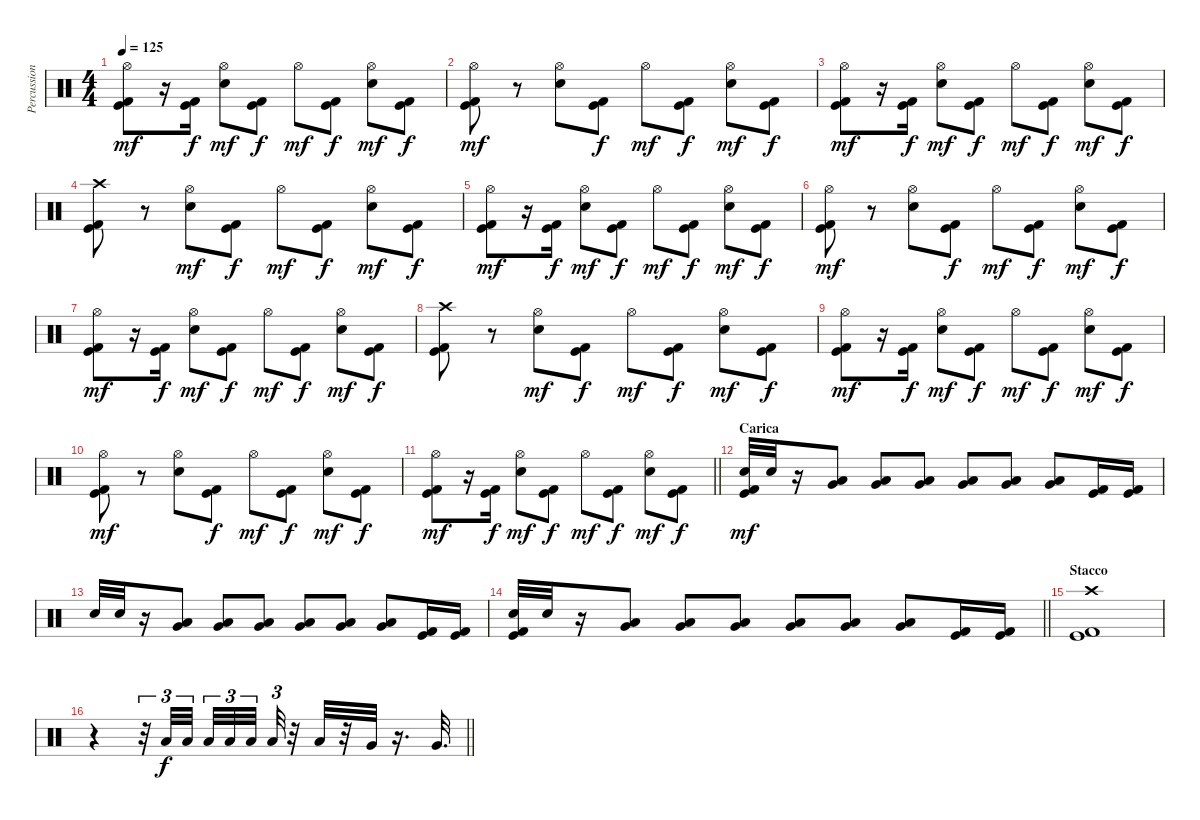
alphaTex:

\track ("Percussioni" "Percussion") {instrument percussion}
\staff {score}
\articulation defaults
\ts (4 4)
\tempo 125
\clef neutral
\ks c
("Hi-Hat (open)" "Kick (hit)" "Kick (hit) 2").8{dy mf} r.16 ("Kick (hit)" "Kick (hit) 2").16{dy f} ("Hi-Hat (open)" "Electric Snare (hit)").8{dy mf} ("Kick (hit)" "Kick (hit) 2").8{dy f} "Hi-Hat (open)".8{dy mf} ("Kick (hit)" "Kick (hit) 2").8{dy f} ("Hi-Hat (open)" "Electric Snare (hit)").8{dy mf} ("Kick (hit)" "Kick (hit) 2").8{dy f} |
("Hi-Hat (open)" "Kick (hit)" "Kick (hit) 2").8{dy mf} r.8 ("Hi-Hat (open)" "Electric Snare (hit)").8 ("Kick (hit)" "Kick (hit) 2").8{dy f} "Hi-Hat (open)".8{dy mf} ("Kick (hit)" "Kick (hit) 2").8{dy f} ("Hi-Hat (open)" "Electric Snare (hit)").8{dy mf} ("Kick (hit)" "Kick (hit) 2").8{dy f} |
("Hi-Hat (open)" "Kick (hit)" "Kick (hit) 2").8{dy mf} r.16 ("Kick (hit)" "Kick (hit) 2").16{dy f} ("Hi-Hat (open)" "Electric Snare (hit)").8{dy mf} ("Kick (hit)" "Kick (hit) 2").8{dy f} "Hi-Hat (open)".8{dy mf} ("Kick (hit)" "Kick (hit) 2").8{dy f} ("Hi-Hat (open)" "Electric Snare (hit)").8{dy mf} ("Kick (hit)" "Kick (hit) 2").8{dy f} |
("Crash high (hit)" "Kick (hit)" "Kick (hit) 2").8 r.8 ("Hi-Hat (open)" "Electric Snare (hit)").8{dy mf} ("Kick (hit)" "Kick (hit) 2").8{dy f} "Hi-Hat (open)".8{dy mf} ("Kick (hit)" "Kick (hit) 2").8{dy f} ("Hi-Hat (open)" "Electric Snare (hit)").8{dy mf} ("Kick (hit)" "Kick (hit) 2").8{dy f} |
("Hi-Hat (open)" "Kick (hit)" "Kick (hit) 2").8{dy mf} r.16 ("Kick (hit)" "Kick (hit) 2").16{dy f} ("Hi-Hat (open)" "Electric Snare (hit)").8{dy mf} ("Kick (hit)" "Kick (hit) 2").8{dy f} "Hi-Hat (open)".8{dy mf} ("Kick (hit)" "Kick (hit) 2").8{dy f} ("Hi-Hat (open)" "Electric Snare (hit)").8{dy mf} ("Kick (hit)" "Kick (hit) 2").8{dy f} |
("Hi-Hat (open)" "Kick (hit)" "Kick (hit) 2").8{dy mf} r.8 ("Hi-Hat (open)" "Electric Snare (hit)").8 ("Kick (hit)" "Kick (hit) 2").8{dy f} "Hi-Hat (open)".8{dy mf} ("Kick (hit)" "Kick (hit) 2").8{dy f} ("Hi-Hat (open)" "Electric Snare (hit)").8{dy mf} ("Kick (hit)" "Kick (hit) 2").8{dy f} |
("Hi-Hat (open)" "Kick (hit)" "Kick (hit) 2").8{dy mf} r.16 ("Kick (hit)" "Kick (hit) 2").16{dy f} ("Hi-Hat (open)" "Electric Snare (hit)").8{dy mf} ("Kick (hit)" "Kick (hit) 2").8{dy f} "Hi-Hat (open)".8{dy mf} ("Kick (hit)" "Kick (hit) 2").8{dy f} ("Hi-Hat (open)" "Electric Snare (hit)").8{dy mf} ("Kick (hit)" "Kick (hit) 2").8{dy f} |
("Crash high (hit)" "Kick (hit)" "Kick (hit) 2").8 r.8 ("Hi-Hat (open)" "Electric Snare (hit)").8{dy mf} ("Kick (hit)" "Kick (hit) 2").8{dy f} "Hi-Hat (open)".8{dy mf} ("Kick (hit)" "Kick (hit) 2").8{dy f} ("Hi-Hat (open)" "Electric Snare (hit)").8{dy mf} ("Kick (hit)" "Kick (hit) 2").8{dy f} |
("Hi-Hat (open)" "Kick (hit)" "Kick (hit) 2").8{dy mf} r.16 ("Kick (hit)" "Kick (hit) 2").16{dy f} ("Hi-Hat (open)" "Electric Snare (hit)").8{dy mf} ("Kick (hit)" "Kick (hit) 2").8{dy f} "Hi-Hat (open)".8{dy mf} ("Kick (hit)" "Kick (hit) 2").8{dy f} ("Hi-Hat (open)" "Electric Snare (hit)").8{dy mf} ("Kick (hit)" "Kick (hit) 2").8{dy f} |
("Hi-Hat (open)" "Kick (hit)" "Kick (hit) 2").8{dy mf} r.8 ("Hi-Hat (open)" "Electric Snare (hit)").8 ("Kick (hit)" "Kick (hit) 2").8{dy f} "Hi-Hat (open)".8{dy mf} ("Kick (hit)" "Kick (hit) 2").8{dy f} ("Hi-Hat (open)" "Electric Snare (hit)").8{dy mf} ("Kick (hit)" "Kick (hit) 2").8{dy f} |
\barLineRight lightlight
("Hi-Hat (open)" "Kick (hit)" "Kick (hit) 2").8{dy mf} r.16 ("Kick (hit)" "Kick (hit) 2").16{dy f} ("Hi-Hat (open)" "Electric Snare (hit)").8{dy mf} ("Kick (hit)" "Kick (hit) 2").8{dy f} "Hi-Hat (open)".8{dy mf} ("Kick (hit)" "Kick (hit) 2").8{dy f} ("Hi-Hat (open)" "Electric Snare (hit)").8{dy mf} ("Kick (hit)" "Kick (hit) 2").8{dy f} |
\section ("" "Carica")
("Electric Snare (hit)" "Kick (hit)" "Kick (hit) 2").32{dy mf} "Electric Snare (hit)".32 r.16 ("Very Low Tom (hit)" "Low Tom (hit)").8 ("Very Low Tom (hit)" "Low Tom (hit)").8 ("Very Low Tom (hit)" "Low Tom (hit)").8 ("Very Low Tom (hit)" "Low Tom (hit)").8 ("Very Low Tom (hit)" "Low Tom (hit)").8 ("Very Low Tom (hit)" "Low Tom (hit)").8 ("Kick (hit)" "Kick (hit) 2").16 ("Kick (hit)" "Kick (hit) 2").16 |
"Electric Snare (hit)".32 "Electric Snare (hit)".32 r.16 ("Very Low Tom (hit)" "Low Tom (hit)").8 ("Very Low Tom (hit)" "Low Tom (hit)").8 ("Very Low Tom (hit)" "Low Tom (hit)").8 ("Very Low Tom (hit)" "Low Tom (hit)").8 ("Very Low Tom (hit)" "Low Tom (hit)").8 ("Very Low Tom (hit)" "Low Tom (hit)").8 ("Kick (hit)" "Kick (hit) 2").16 ("Kick (hit)" "Kick (hit) 2").16 |
\barLineRight lightlight
("Electric Snare (hit)" "Kick (hit)" "Kick (hit) 2").32 "Electric Snare (hit)".32 r.16 ("Very Low Tom (hit)" "Low Tom (hit)").8 ("Very Low Tom (hit)" "Low Tom (hit)").8 ("Very Low Tom (hit)" "Low Tom (hit)").8 ("Very Low Tom (hit)" "Low Tom (hit)").8 ("Very Low Tom (hit)" "Low Tom (hit)").8 ("Very Low Tom (hit)" "Low Tom (hit)").8 ("Kick (hit)" "Kick (hit) 2").16 ("Kick (hit)" "Kick (hit) 2").16 |
\section ("" "Stacco")
("Crash high (hit)" "Kick (hit)" "Kick (hit) 2").1 |
\barLineRight lightlight
r.4 r.32{tu (3 2)} "Low Floor Tom (hit)".32{tu (3 2) dy f} "Low Floor Tom (hit)".32{tu (3 2) beam splitsecondary} "Low Floor Tom (hit)".32{tu (3 2)} "Low Floor Tom (hit)".32{tu (3 2)} "Low Floor Tom (hit)".32{tu (3 2) beam splitsecondary} "Low Floor Tom (hit)".32{tu (3 2)} r.32 "Low Floor Tom (hit)".32 r.32 "Very Low Tom (hit)".32 r.16{d} "Very Low Tom (hit)".32{d}
